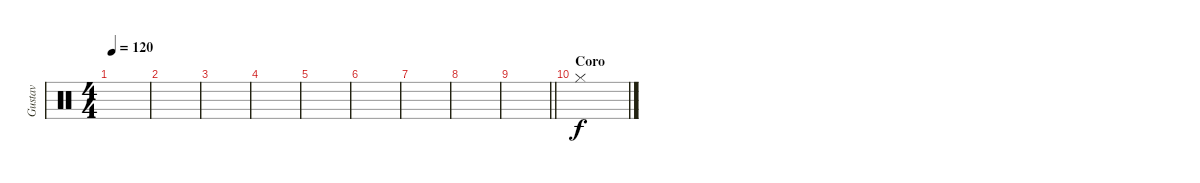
\track ("Gustav" "Gustav") {instrument percussion}
\staff {score}
\articulation defaults
\ts (4 4)
\tempo 120
\clef neutral
\ks c
|
|
|
|
|
|
|
|
\barLineRight lightlight
|
\section ("" "Coro")
"Hi-Hat (closed)".1
